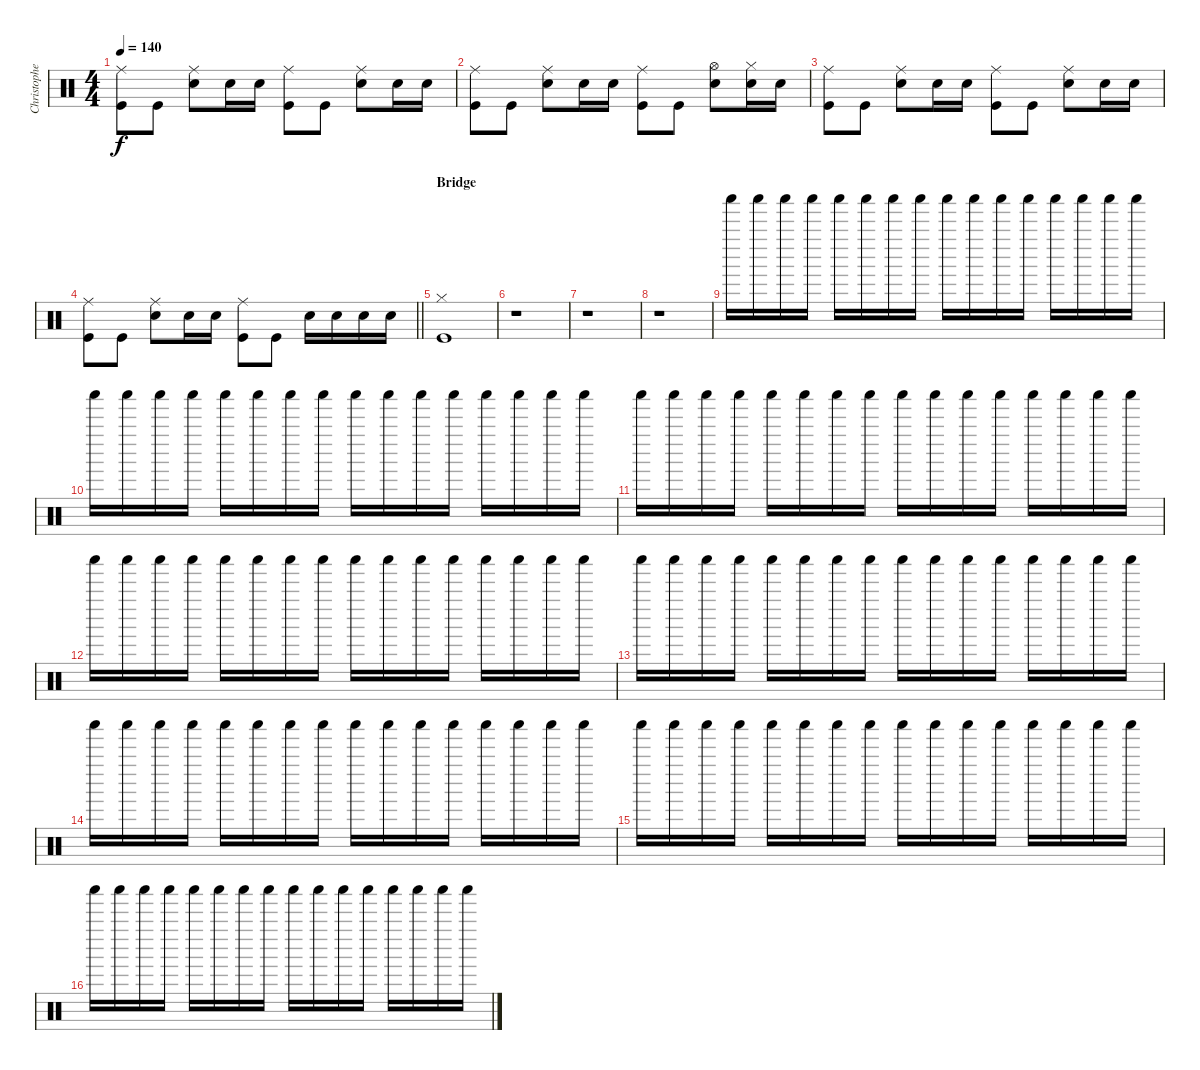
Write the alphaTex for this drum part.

\track ("Christopher - Drums" "Christophe") {instrument percussion}
\staff {score}
\articulation defaults
\ts (4 4)
\tempo 140
\clef neutral
\ks c
("Ride (middle)" "Kick (hit)").8{dy f} "Kick (hit)".8 ("Ride (middle)" "Snare (hit) 2").8 "Snare (hit) 2".16 "Snare (hit) 2".16 ("Ride (middle)" "Kick (hit)").8 "Kick (hit)".8 ("Ride (middle)" "Snare (hit) 2").8 "Snare (hit) 2".16 "Snare (hit) 2".16 |
("Ride (middle)" "Kick (hit)").8 "Kick (hit)".8 ("Ride (middle)" "Snare (hit) 2").8 "Snare (hit) 2".16 "Snare (hit) 2".16 ("Ride (middle)" "Kick (hit)").8 "Kick (hit)".8 ("Hi-Hat (open)" "Snare (hit) 2").8 ("Hi-Hat (closed)" "Snare (hit) 2").16 "Snare (hit) 2".16 |
("Ride (middle)" "Kick (hit)").8 "Kick (hit)".8 ("Ride (middle)" "Snare (hit) 2").8 "Snare (hit) 2".16 "Snare (hit) 2".16 ("Ride (middle)" "Kick (hit)").8 "Kick (hit)".8 ("Ride (middle)" "Snare (hit) 2").8 "Snare (hit) 2".16 "Snare (hit) 2".16 |
\barLineRight lightlight
("Ride (middle)" "Kick (hit)").8 "Kick (hit)".8 ("Ride (middle)" "Snare (hit) 2").8 "Snare (hit) 2".16 "Snare (hit) 2".16 ("Ride (middle)" "Kick (hit)").8 "Kick (hit)".8 "Snare (hit) 2".16 "Snare (hit) 2".16 "Snare (hit) 2".16 "Snare (hit) 2".16 |
\section ("" "Bridge")
("Hi-Hat (closed)" "Kick (hit)").1 |
r.1 |
r.1 |
r.1 |
"Shaker (hit)".16 "Shaker (hit)".16 "Shaker (hit)".16 "Shaker (hit)".16 "Shaker (hit)".16 "Shaker (hit)".16 "Shaker (hit)".16 "Shaker (hit)".16 "Shaker (hit)".16 "Shaker (hit)".16 "Shaker (hit)".16 "Shaker (hit)".16 "Shaker (hit)".16 "Shaker (hit)".16 "Shaker (hit)".16 "Shaker (hit)".16 |
"Shaker (hit)".16 "Shaker (hit)".16 "Shaker (hit)".16 "Shaker (hit)".16 "Shaker (hit)".16 "Shaker (hit)".16 "Shaker (hit)".16 "Shaker (hit)".16 "Shaker (hit)".16 "Shaker (hit)".16 "Shaker (hit)".16 "Shaker (hit)".16 "Shaker (hit)".16 "Shaker (hit)".16 "Shaker (hit)".16 "Shaker (hit)".16 |
"Shaker (hit)".16 "Shaker (hit)".16 "Shaker (hit)".16 "Shaker (hit)".16 "Shaker (hit)".16 "Shaker (hit)".16 "Shaker (hit)".16 "Shaker (hit)".16 "Shaker (hit)".16 "Shaker (hit)".16 "Shaker (hit)".16 "Shaker (hit)".16 "Shaker (hit)".16 "Shaker (hit)".16 "Shaker (hit)".16 "Shaker (hit)".16 |
"Shaker (hit)".16 "Shaker (hit)".16 "Shaker (hit)".16 "Shaker (hit)".16 "Shaker (hit)".16 "Shaker (hit)".16 "Shaker (hit)".16 "Shaker (hit)".16 "Shaker (hit)".16 "Shaker (hit)".16 "Shaker (hit)".16 "Shaker (hit)".16 "Shaker (hit)".16 "Shaker (hit)".16 "Shaker (hit)".16 "Shaker (hit)".16 |
"Shaker (hit)".16 "Shaker (hit)".16 "Shaker (hit)".16 "Shaker (hit)".16 "Shaker (hit)".16 "Shaker (hit)".16 "Shaker (hit)".16 "Shaker (hit)".16 "Shaker (hit)".16 "Shaker (hit)".16 "Shaker (hit)".16 "Shaker (hit)".16 "Shaker (hit)".16 "Shaker (hit)".16 "Shaker (hit)".16 "Shaker (hit)".16 |
"Shaker (hit)".16 "Shaker (hit)".16 "Shaker (hit)".16 "Shaker (hit)".16 "Shaker (hit)".16 "Shaker (hit)".16 "Shaker (hit)".16 "Shaker (hit)".16 "Shaker (hit)".16 "Shaker (hit)".16 "Shaker (hit)".16 "Shaker (hit)".16 "Shaker (hit)".16 "Shaker (hit)".16 "Shaker (hit)".16 "Shaker (hit)".16 |
"Shaker (hit)".16 "Shaker (hit)".16 "Shaker (hit)".16 "Shaker (hit)".16 "Shaker (hit)".16 "Shaker (hit)".16 "Shaker (hit)".16 "Shaker (hit)".16 "Shaker (hit)".16 "Shaker (hit)".16 "Shaker (hit)".16 "Shaker (hit)".16 "Shaker (hit)".16 "Shaker (hit)".16 "Shaker (hit)".16 "Shaker (hit)".16 |
"Shaker (hit)".16 "Shaker (hit)".16 "Shaker (hit)".16 "Shaker (hit)".16 "Shaker (hit)".16 "Shaker (hit)".16 "Shaker (hit)".16 "Shaker (hit)".16 "Shaker (hit)".16 "Shaker (hit)".16 "Shaker (hit)".16 "Shaker (hit)".16 "Shaker (hit)".16 "Shaker (hit)".16 "Shaker (hit)".16 "Shaker (hit)".16
